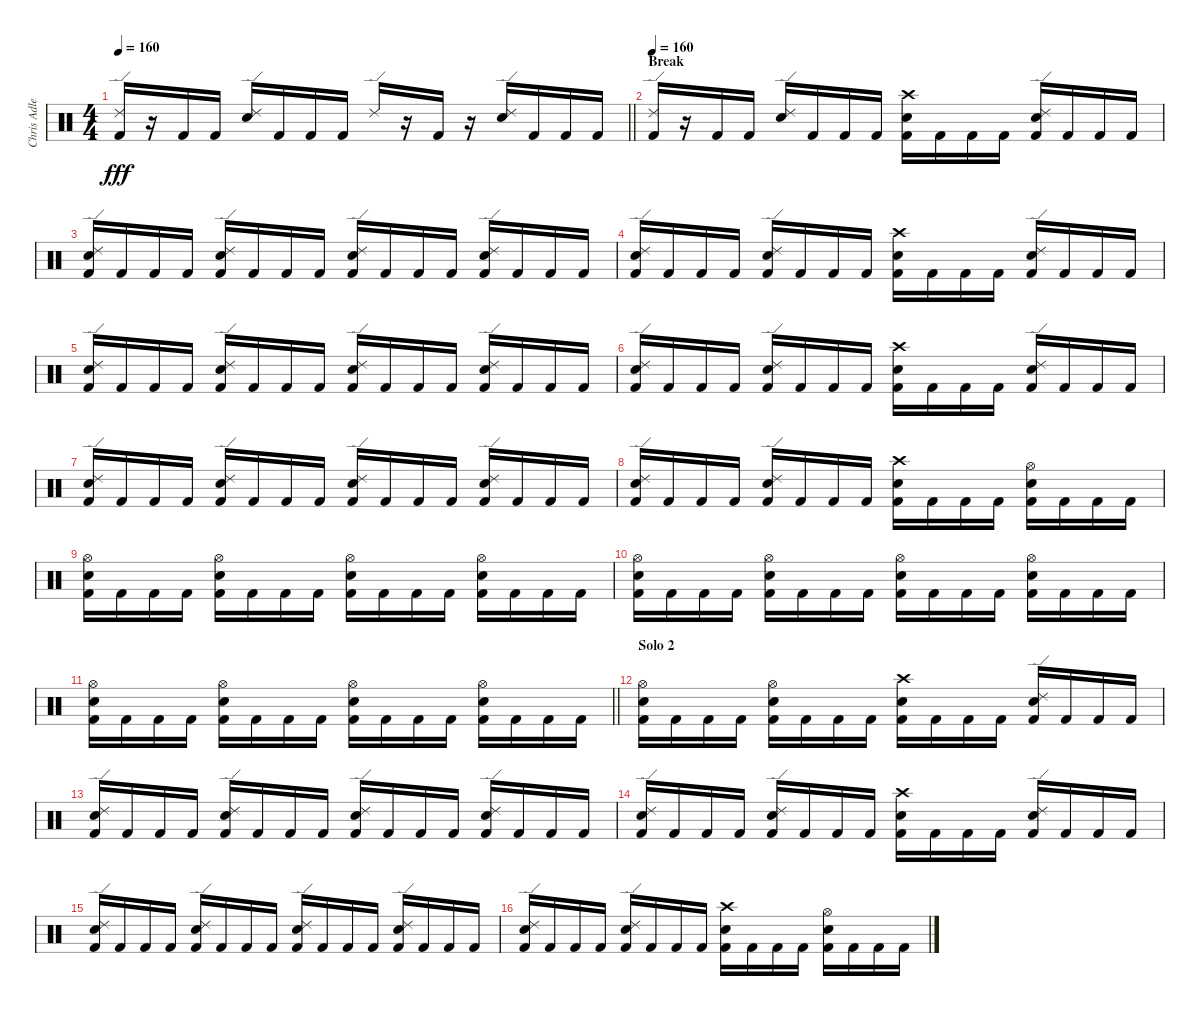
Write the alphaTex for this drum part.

\track ("Chris Adler" "Chris Adle") {instrument percussion}
\staff {score}
\articulation defaults
\ts (4 4)
\tempo 160
\clef neutral
\barLineRight lightlight
\ks c
("Ride (edge) 2" "Kick (hit) 2").16{dy fff} r.16 "Kick (hit) 2".16 "Kick (hit) 2".16 ("Ride (edge) 2" "Snare (hit) 2").16 "Kick (hit) 2".16 "Kick (hit) 2".16 "Kick (hit) 2".16 "Ride (edge) 2".16 r.16 "Kick (hit) 2".16 r.16 ("Ride (edge) 2" "Snare (hit) 2").16 "Kick (hit) 2".16 "Kick (hit) 2".16 "Kick (hit) 2".16 |
\section ("" "Break")
\tempo 160
("Ride (edge) 2" "Kick (hit) 2").16 r.16 "Kick (hit) 2".16 "Kick (hit) 2".16 ("Ride (edge) 2" "Snare (hit) 2").16 "Kick (hit) 2".16 "Kick (hit) 2".16 "Kick (hit) 2".16 ("Crash high (hit)" "Snare (hit) 2" "Kick (hit) 2").16 "Kick (hit) 2".16 "Kick (hit) 2".16 "Kick (hit) 2".16 ("Ride (edge) 2" "Snare (hit) 2" "Kick (hit) 2").16 "Kick (hit) 2".16 "Kick (hit) 2".16 "Kick (hit) 2".16 |
("Ride (edge) 2" "Snare (hit) 2" "Kick (hit) 2").16 "Kick (hit) 2".16 "Kick (hit) 2".16 "Kick (hit) 2".16 ("Ride (edge) 2" "Snare (hit) 2" "Kick (hit) 2").16 "Kick (hit) 2".16 "Kick (hit) 2".16 "Kick (hit) 2".16 ("Ride (edge) 2" "Snare (hit) 2" "Kick (hit) 2").16 "Kick (hit) 2".16 "Kick (hit) 2".16 "Kick (hit) 2".16 ("Ride (edge) 2" "Snare (hit) 2" "Kick (hit) 2").16 "Kick (hit) 2".16 "Kick (hit) 2".16 "Kick (hit) 2".16 |
("Ride (edge) 2" "Snare (hit) 2" "Kick (hit) 2").16 "Kick (hit) 2".16 "Kick (hit) 2".16 "Kick (hit) 2".16 ("Ride (edge) 2" "Snare (hit) 2" "Kick (hit) 2").16 "Kick (hit) 2".16 "Kick (hit) 2".16 "Kick (hit) 2".16 ("Crash high (hit)" "Snare (hit) 2" "Kick (hit) 2").16 "Kick (hit) 2".16 "Kick (hit) 2".16 "Kick (hit) 2".16 ("Ride (edge) 2" "Snare (hit) 2" "Kick (hit) 2").16 "Kick (hit) 2".16 "Kick (hit) 2".16 "Kick (hit) 2".16 |
("Ride (edge) 2" "Snare (hit) 2" "Kick (hit) 2").16 "Kick (hit) 2".16 "Kick (hit) 2".16 "Kick (hit) 2".16 ("Ride (edge) 2" "Snare (hit) 2" "Kick (hit) 2").16 "Kick (hit) 2".16 "Kick (hit) 2".16 "Kick (hit) 2".16 ("Ride (edge) 2" "Snare (hit) 2" "Kick (hit) 2").16 "Kick (hit) 2".16 "Kick (hit) 2".16 "Kick (hit) 2".16 ("Ride (edge) 2" "Snare (hit) 2" "Kick (hit) 2").16 "Kick (hit) 2".16 "Kick (hit) 2".16 "Kick (hit) 2".16 |
("Ride (edge) 2" "Snare (hit) 2" "Kick (hit) 2").16 "Kick (hit) 2".16 "Kick (hit) 2".16 "Kick (hit) 2".16 ("Ride (edge) 2" "Snare (hit) 2" "Kick (hit) 2").16 "Kick (hit) 2".16 "Kick (hit) 2".16 "Kick (hit) 2".16 ("Crash high (hit)" "Snare (hit) 2" "Kick (hit) 2").16 "Kick (hit) 2".16 "Kick (hit) 2".16 "Kick (hit) 2".16 ("Ride (edge) 2" "Snare (hit) 2" "Kick (hit) 2").16 "Kick (hit) 2".16 "Kick (hit) 2".16 "Kick (hit) 2".16 |
("Ride (edge) 2" "Snare (hit) 2" "Kick (hit) 2").16 "Kick (hit) 2".16 "Kick (hit) 2".16 "Kick (hit) 2".16 ("Ride (edge) 2" "Snare (hit) 2" "Kick (hit) 2").16 "Kick (hit) 2".16 "Kick (hit) 2".16 "Kick (hit) 2".16 ("Ride (edge) 2" "Snare (hit) 2" "Kick (hit) 2").16 "Kick (hit) 2".16 "Kick (hit) 2".16 "Kick (hit) 2".16 ("Ride (edge) 2" "Snare (hit) 2" "Kick (hit) 2").16 "Kick (hit) 2".16 "Kick (hit) 2".16 "Kick (hit) 2".16 |
("Ride (edge) 2" "Snare (hit) 2" "Kick (hit) 2").16 "Kick (hit) 2".16 "Kick (hit) 2".16 "Kick (hit) 2".16 ("Ride (edge) 2" "Snare (hit) 2" "Kick (hit) 2").16 "Kick (hit) 2".16 "Kick (hit) 2".16 "Kick (hit) 2".16 ("Crash high (hit)" "Snare (hit) 2" "Kick (hit) 2").16 "Kick (hit) 2".16 "Kick (hit) 2".16 "Kick (hit) 2".16 ("Hi-Hat (open)" "Snare (hit) 2" "Kick (hit) 2").16 "Kick (hit) 2".16 "Kick (hit) 2".16 "Kick (hit) 2".16 |
("Hi-Hat (open)" "Snare (hit) 2" "Kick (hit) 2").16 "Kick (hit) 2".16 "Kick (hit) 2".16 "Kick (hit) 2".16 ("Hi-Hat (open)" "Snare (hit) 2" "Kick (hit) 2").16 "Kick (hit) 2".16 "Kick (hit) 2".16 "Kick (hit) 2".16 ("Hi-Hat (open)" "Snare (hit) 2" "Kick (hit) 2").16 "Kick (hit) 2".16 "Kick (hit) 2".16 "Kick (hit) 2".16 ("Hi-Hat (open)" "Snare (hit) 2" "Kick (hit) 2").16 "Kick (hit) 2".16 "Kick (hit) 2".16 "Kick (hit) 2".16 |
("Hi-Hat (open)" "Snare (hit) 2" "Kick (hit) 2").16 "Kick (hit) 2".16 "Kick (hit) 2".16 "Kick (hit) 2".16 ("Hi-Hat (open)" "Snare (hit) 2" "Kick (hit) 2").16 "Kick (hit) 2".16 "Kick (hit) 2".16 "Kick (hit) 2".16 ("Hi-Hat (open)" "Snare (hit) 2" "Kick (hit) 2").16 "Kick (hit) 2".16 "Kick (hit) 2".16 "Kick (hit) 2".16 ("Hi-Hat (open)" "Snare (hit) 2" "Kick (hit) 2").16 "Kick (hit) 2".16 "Kick (hit) 2".16 "Kick (hit) 2".16 |
\barLineRight lightlight
("Hi-Hat (open)" "Snare (hit) 2" "Kick (hit) 2").16 "Kick (hit) 2".16 "Kick (hit) 2".16 "Kick (hit) 2".16 ("Hi-Hat (open)" "Snare (hit) 2" "Kick (hit) 2").16 "Kick (hit) 2".16 "Kick (hit) 2".16 "Kick (hit) 2".16 ("Hi-Hat (open)" "Snare (hit) 2" "Kick (hit) 2").16 "Kick (hit) 2".16 "Kick (hit) 2".16 "Kick (hit) 2".16 ("Hi-Hat (open)" "Snare (hit) 2" "Kick (hit) 2").16 "Kick (hit) 2".16 "Kick (hit) 2".16 "Kick (hit) 2".16 |
\section ("" "Solo 2")
("Hi-Hat (open)" "Snare (hit) 2" "Kick (hit) 2").16 "Kick (hit) 2".16 "Kick (hit) 2".16 "Kick (hit) 2".16 ("Hi-Hat (open)" "Snare (hit) 2" "Kick (hit) 2").16 "Kick (hit) 2".16 "Kick (hit) 2".16 "Kick (hit) 2".16 ("Crash high (hit)" "Snare (hit) 2" "Kick (hit) 2").16 "Kick (hit) 2".16 "Kick (hit) 2".16 "Kick (hit) 2".16 ("Ride (edge) 2" "Snare (hit) 2" "Kick (hit) 2").16 "Kick (hit) 2".16 "Kick (hit) 2".16 "Kick (hit) 2".16 |
("Ride (edge) 2" "Snare (hit) 2" "Kick (hit) 2").16 "Kick (hit) 2".16 "Kick (hit) 2".16 "Kick (hit) 2".16 ("Ride (edge) 2" "Snare (hit) 2" "Kick (hit) 2").16 "Kick (hit) 2".16 "Kick (hit) 2".16 "Kick (hit) 2".16 ("Ride (edge) 2" "Snare (hit) 2" "Kick (hit) 2").16 "Kick (hit) 2".16 "Kick (hit) 2".16 "Kick (hit) 2".16 ("Ride (edge) 2" "Snare (hit) 2" "Kick (hit) 2").16 "Kick (hit) 2".16 "Kick (hit) 2".16 "Kick (hit) 2".16 |
("Ride (edge) 2" "Snare (hit) 2" "Kick (hit) 2").16 "Kick (hit) 2".16 "Kick (hit) 2".16 "Kick (hit) 2".16 ("Ride (edge) 2" "Snare (hit) 2" "Kick (hit) 2").16 "Kick (hit) 2".16 "Kick (hit) 2".16 "Kick (hit) 2".16 ("Crash high (hit)" "Snare (hit) 2" "Kick (hit) 2").16 "Kick (hit) 2".16 "Kick (hit) 2".16 "Kick (hit) 2".16 ("Ride (edge) 2" "Snare (hit) 2" "Kick (hit) 2").16 "Kick (hit) 2".16 "Kick (hit) 2".16 "Kick (hit) 2".16 |
("Ride (edge) 2" "Snare (hit) 2" "Kick (hit) 2").16 "Kick (hit) 2".16 "Kick (hit) 2".16 "Kick (hit) 2".16 ("Ride (edge) 2" "Snare (hit) 2" "Kick (hit) 2").16 "Kick (hit) 2".16 "Kick (hit) 2".16 "Kick (hit) 2".16 ("Ride (edge) 2" "Snare (hit) 2" "Kick (hit) 2").16 "Kick (hit) 2".16 "Kick (hit) 2".16 "Kick (hit) 2".16 ("Ride (edge) 2" "Snare (hit) 2" "Kick (hit) 2").16 "Kick (hit) 2".16 "Kick (hit) 2".16 "Kick (hit) 2".16 |
("Ride (edge) 2" "Snare (hit) 2" "Kick (hit) 2").16 "Kick (hit) 2".16 "Kick (hit) 2".16 "Kick (hit) 2".16 ("Ride (edge) 2" "Snare (hit) 2" "Kick (hit) 2").16 "Kick (hit) 2".16 "Kick (hit) 2".16 "Kick (hit) 2".16 ("Crash high (hit)" "Snare (hit) 2" "Kick (hit) 2").16 "Kick (hit) 2".16 "Kick (hit) 2".16 "Kick (hit) 2".16 ("Hi-Hat (open)" "Snare (hit) 2" "Kick (hit) 2").16 "Kick (hit) 2".16 "Kick (hit) 2".16 "Kick (hit) 2".16
